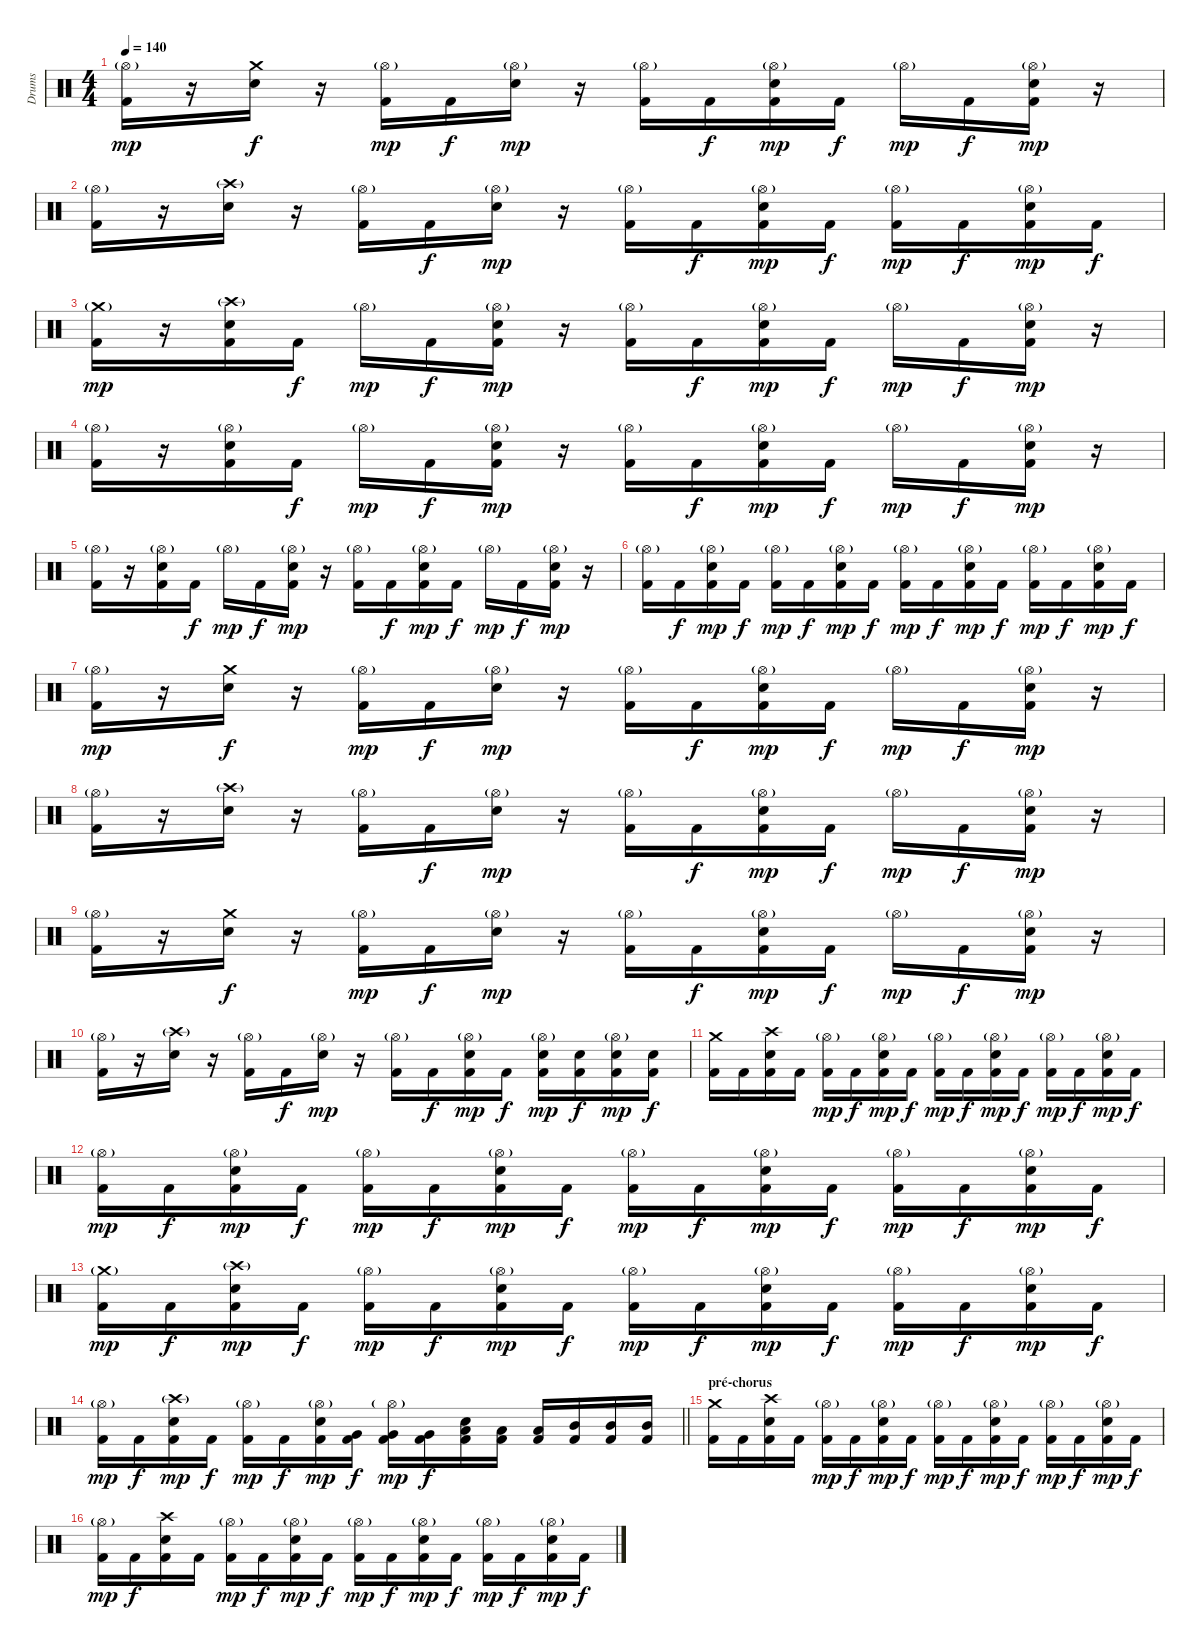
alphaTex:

\track ("Drums" "Drums") {instrument percussion}
\staff {score}
\articulation defaults
\ts (4 4)
\tempo 140
\clef neutral
\ks c
("Hi-Hat (open)"{g} "Kick (hit) 2").16{dy mp} r.16 ("Crash medium (hit)" "Electric Snare (hit)").16{dy f} r.16 ("Hi-Hat (open)"{g} "Kick (hit) 2").16{dy mp} "Kick (hit) 2".16{dy f} ("Hi-Hat (open)"{g} "Electric Snare (hit)").16{dy mp} r.16 ("Hi-Hat (open)"{g} "Kick (hit) 2").16 "Kick (hit) 2".16{dy f} ("Hi-Hat (open)"{g} "Electric Snare (hit)" "Kick (hit) 2").16{dy mp} "Kick (hit) 2".16{dy f} "Hi-Hat (open)"{g}.16{dy mp} "Kick (hit) 2".16{dy f} ("Hi-Hat (open)"{g} "Electric Snare (hit)" "Kick (hit) 2").16{dy mp} r.16 |
("Hi-Hat (open)"{g} "Kick (hit) 2").16 r.16 ("Crash high (hit)"{g} "Electric Snare (hit)").16 r.16 ("Hi-Hat (open)"{g} "Kick (hit) 2").16 "Kick (hit) 2".16{dy f} ("Hi-Hat (open)"{g} "Electric Snare (hit)").16{dy mp} r.16 ("Hi-Hat (open)"{g} "Kick (hit) 2").16 "Kick (hit) 2".16{dy f} ("Hi-Hat (open)"{g} "Electric Snare (hit)" "Kick (hit) 2").16{dy mp} "Kick (hit) 2".16{dy f} ("Hi-Hat (open)"{g} "Kick (hit) 2").16{dy mp} "Kick (hit) 2".16{dy f} ("Hi-Hat (open)"{g} "Electric Snare (hit)" "Kick (hit) 2").16{dy mp} "Kick (hit) 2".16{dy f} |
("Crash medium (hit)"{g} "Kick (hit) 2").16{dy mp} r.16 ("Crash high (hit)"{g} "Electric Snare (hit)" "Kick (hit) 2").16 "Kick (hit) 2".16{dy f} "Hi-Hat (open)"{g}.16{dy mp} "Kick (hit) 2".16{dy f} ("Hi-Hat (open)"{g} "Electric Snare (hit)" "Kick (hit) 2").16{dy mp} r.16 ("Hi-Hat (open)"{g} "Kick (hit) 2").16 "Kick (hit) 2".16{dy f} ("Hi-Hat (open)"{g} "Electric Snare (hit)" "Kick (hit) 2").16{dy mp} "Kick (hit) 2".16{dy f} "Hi-Hat (open)"{g}.16{dy mp} "Kick (hit) 2".16{dy f} ("Hi-Hat (open)"{g} "Electric Snare (hit)" "Kick (hit) 2").16{dy mp} r.16 |
("Hi-Hat (open)"{g} "Kick (hit) 2").16 r.16 ("Hi-Hat (open)"{g} "Electric Snare (hit)" "Kick (hit) 2").16 "Kick (hit) 2".16{dy f} "Hi-Hat (open)"{g}.16{dy mp} "Kick (hit) 2".16{dy f} ("Hi-Hat (open)"{g} "Electric Snare (hit)" "Kick (hit) 2").16{dy mp} r.16 ("Hi-Hat (open)"{g} "Kick (hit) 2").16 "Kick (hit) 2".16{dy f} ("Hi-Hat (open)"{g} "Electric Snare (hit)" "Kick (hit) 2").16{dy mp} "Kick (hit) 2".16{dy f} "Hi-Hat (open)"{g}.16{dy mp} "Kick (hit) 2".16{dy f} ("Hi-Hat (open)"{g} "Electric Snare (hit)" "Kick (hit) 2").16{dy mp} r.16 |
("Hi-Hat (open)"{g} "Kick (hit) 2").16 r.16 ("Hi-Hat (open)"{g} "Electric Snare (hit)" "Kick (hit) 2").16 "Kick (hit) 2".16{dy f} "Hi-Hat (open)"{g}.16{dy mp} "Kick (hit) 2".16{dy f} ("Hi-Hat (open)"{g} "Electric Snare (hit)" "Kick (hit) 2").16{dy mp} r.16 ("Hi-Hat (open)"{g} "Kick (hit) 2").16 "Kick (hit) 2".16{dy f} ("Hi-Hat (open)"{g} "Electric Snare (hit)" "Kick (hit) 2").16{dy mp} "Kick (hit) 2".16{dy f} "Hi-Hat (open)"{g}.16{dy mp} "Kick (hit) 2".16{dy f} ("Hi-Hat (open)"{g} "Electric Snare (hit)" "Kick (hit) 2").16{dy mp} r.16 |
("Hi-Hat (open)"{g} "Kick (hit) 2").16 "Kick (hit) 2".16{dy f} ("Hi-Hat (open)"{g} "Electric Snare (hit)" "Kick (hit) 2").16{dy mp} "Kick (hit) 2".16{dy f} ("Hi-Hat (open)"{g} "Kick (hit) 2").16{dy mp} "Kick (hit) 2".16{dy f} ("Hi-Hat (open)"{g} "Electric Snare (hit)" "Kick (hit) 2").16{dy mp} "Kick (hit) 2".16{dy f} ("Hi-Hat (open)"{g} "Kick (hit) 2").16{dy mp} "Kick (hit) 2".16{dy f} ("Hi-Hat (open)"{g} "Electric Snare (hit)" "Kick (hit) 2").16{dy mp} "Kick (hit) 2".16{dy f} ("Hi-Hat (open)"{g} "Kick (hit) 2").16{dy mp} "Kick (hit) 2".16{dy f} ("Hi-Hat (open)"{g} "Electric Snare (hit)" "Kick (hit) 2").16{dy mp} "Kick (hit) 2".16{dy f} |
("Hi-Hat (open)"{g} "Kick (hit) 2").16{dy mp} r.16 ("Crash medium (hit)" "Electric Snare (hit)").16{dy f} r.16 ("Hi-Hat (open)"{g} "Kick (hit) 2").16{dy mp} "Kick (hit) 2".16{dy f} ("Hi-Hat (open)"{g} "Electric Snare (hit)").16{dy mp} r.16 ("Hi-Hat (open)"{g} "Kick (hit) 2").16 "Kick (hit) 2".16{dy f} ("Hi-Hat (open)"{g} "Electric Snare (hit)" "Kick (hit) 2").16{dy mp} "Kick (hit) 2".16{dy f} "Hi-Hat (open)"{g}.16{dy mp} "Kick (hit) 2".16{dy f} ("Hi-Hat (open)"{g} "Electric Snare (hit)" "Kick (hit) 2").16{dy mp} r.16 |
("Hi-Hat (open)"{g} "Kick (hit) 2").16 r.16 ("Crash high (hit)"{g} "Electric Snare (hit)").16 r.16 ("Hi-Hat (open)"{g} "Kick (hit) 2").16 "Kick (hit) 2".16{dy f} ("Hi-Hat (open)"{g} "Electric Snare (hit)").16{dy mp} r.16 ("Hi-Hat (open)"{g} "Kick (hit) 2").16 "Kick (hit) 2".16{dy f} ("Hi-Hat (open)"{g} "Electric Snare (hit)" "Kick (hit) 2").16{dy mp} "Kick (hit) 2".16{dy f} "Hi-Hat (open)"{g}.16{dy mp} "Kick (hit) 2".16{dy f} ("Hi-Hat (open)"{g} "Electric Snare (hit)" "Kick (hit) 2").16{dy mp} r.16 |
("Hi-Hat (open)"{g} "Kick (hit) 2").16 r.16 ("Crash medium (hit)" "Electric Snare (hit)").16{dy f} r.16 ("Hi-Hat (open)"{g} "Kick (hit) 2").16{dy mp} "Kick (hit) 2".16{dy f} ("Hi-Hat (open)"{g} "Electric Snare (hit)").16{dy mp} r.16 ("Hi-Hat (open)"{g} "Kick (hit) 2").16 "Kick (hit) 2".16{dy f} ("Hi-Hat (open)"{g} "Electric Snare (hit)" "Kick (hit) 2").16{dy mp} "Kick (hit) 2".16{dy f} "Hi-Hat (open)"{g}.16{dy mp} "Kick (hit) 2".16{dy f} ("Hi-Hat (open)"{g} "Electric Snare (hit)" "Kick (hit) 2").16{dy mp} r.16 |
("Hi-Hat (open)"{g} "Kick (hit) 2").16 r.16 ("Crash high (hit)"{g} "Electric Snare (hit)").16 r.16 ("Hi-Hat (open)"{g} "Kick (hit) 2").16 "Kick (hit) 2".16{dy f} ("Hi-Hat (open)"{g} "Electric Snare (hit)").16{dy mp} r.16 ("Hi-Hat (open)"{g} "Kick (hit) 2").16 "Kick (hit) 2".16{dy f} ("Hi-Hat (open)"{g} "Electric Snare (hit)" "Kick (hit) 2").16{dy mp} "Kick (hit) 2".16{dy f} ("Hi-Hat (open)"{g} "Electric Snare (hit)" "Kick (hit) 2").16{dy mp} ("Electric Snare (hit)" "Kick (hit) 2").16{dy f} ("Hi-Hat (open)"{g} "Electric Snare (hit)" "Kick (hit) 2").16{dy mp} ("Electric Snare (hit)" "Kick (hit) 2").16{dy f} |
("Crash medium (hit)" "Kick (hit) 2").16 "Kick (hit) 2".16 ("Crash high (hit)" "Electric Snare (hit)" "Kick (hit) 2").16 "Kick (hit) 2".16 ("Hi-Hat (open)"{g} "Kick (hit) 2").16{dy mp} "Kick (hit) 2".16{dy f} ("Hi-Hat (open)"{g} "Electric Snare (hit)" "Kick (hit) 2").16{dy mp} "Kick (hit) 2".16{dy f} ("Hi-Hat (open)"{g} "Kick (hit) 2").16{dy mp} "Kick (hit) 2".16{dy f} ("Hi-Hat (open)"{g} "Electric Snare (hit)" "Kick (hit) 2").16{dy mp} "Kick (hit) 2".16{dy f} ("Hi-Hat (open)"{g} "Kick (hit) 2").16{dy mp} "Kick (hit) 2".16{dy f} ("Hi-Hat (open)"{g} "Electric Snare (hit)" "Kick (hit) 2").16{dy mp} "Kick (hit) 2".16{dy f} |
("Hi-Hat (open)"{g} "Kick (hit) 2").16{dy mp} "Kick (hit) 2".16{dy f} ("Hi-Hat (open)"{g} "Electric Snare (hit)" "Kick (hit) 2").16{dy mp} "Kick (hit) 2".16{dy f} ("Hi-Hat (open)"{g} "Kick (hit) 2").16{dy mp} "Kick (hit) 2".16{dy f} ("Hi-Hat (open)"{g} "Electric Snare (hit)" "Kick (hit) 2").16{dy mp} "Kick (hit) 2".16{dy f} ("Hi-Hat (open)"{g} "Kick (hit) 2").16{dy mp} "Kick (hit) 2".16{dy f} ("Hi-Hat (open)"{g} "Electric Snare (hit)" "Kick (hit) 2").16{dy mp} "Kick (hit) 2".16{dy f} ("Hi-Hat (open)"{g} "Kick (hit) 2").16{dy mp} "Kick (hit) 2".16{dy f} ("Hi-Hat (open)"{g} "Electric Snare (hit)" "Kick (hit) 2").16{dy mp} "Kick (hit) 2".16{dy f} |
("Crash medium (hit)"{g} "Kick (hit) 2").16{dy mp} "Kick (hit) 2".16{dy f} ("Crash high (hit)"{g} "Electric Snare (hit)" "Kick (hit) 2").16{dy mp} "Kick (hit) 2".16{dy f} ("Hi-Hat (open)"{g} "Kick (hit) 2").16{dy mp} "Kick (hit) 2".16{dy f} ("Hi-Hat (open)"{g} "Electric Snare (hit)" "Kick (hit) 2").16{dy mp} "Kick (hit) 2".16{dy f} ("Hi-Hat (open)"{g} "Kick (hit) 2").16{dy mp} "Kick (hit) 2".16{dy f} ("Hi-Hat (open)"{g} "Electric Snare (hit)" "Kick (hit) 2").16{dy mp} "Kick (hit) 2".16{dy f} ("Hi-Hat (open)"{g} "Kick (hit) 2").16{dy mp} "Kick (hit) 2".16{dy f} ("Hi-Hat (open)"{g} "Electric Snare (hit)" "Kick (hit) 2").16{dy mp} "Kick (hit) 2".16{dy f} |
\barLineRight lightlight
("Hi-Hat (open)"{g} "Kick (hit) 2").16{dy mp} "Kick (hit) 2".16{dy f} ("Crash high (hit)"{g} "Electric Snare (hit)" "Kick (hit) 2").16{dy mp} "Kick (hit) 2".16{dy f} ("Hi-Hat (open)"{g} "Kick (hit) 2").16{dy mp} "Kick (hit) 2".16{dy f} ("Hi-Hat (open)"{g} "Electric Snare (hit)" "Kick (hit) 2").16{dy mp} ("Kick (hit) 2" "Very Low Tom (hit)").16{dy f} ("Hi-Hat (open)"{g} "Kick (hit) 2" "Very Low Tom (hit)").16{dy mp} ("Kick (hit) 2" "Very Low Tom (hit)").16{dy f} ("Electric Snare (hit)" "Kick (hit) 2" "Low Tom (hit)").16 ("Kick (hit) 2" "Low Tom (hit)").16 ("Kick (hit) 2" "Low Tom (hit)").16 ("Kick (hit) 2" "Mid Tom (hit)").16 ("Kick (hit) 2" "Mid Tom (hit)").16 ("Kick (hit) 2" "Mid Tom (hit)").16 |
\section ("" "pré-chorus")
("Crash medium (hit)" "Kick (hit) 2").16 "Kick (hit) 2".16 ("Crash high (hit)" "Electric Snare (hit)" "Kick (hit) 2").16 "Kick (hit) 2".16 ("Hi-Hat (open)"{g} "Kick (hit) 2").16{dy mp} "Kick (hit) 2".16{dy f} ("Hi-Hat (open)"{g} "Electric Snare (hit)" "Kick (hit) 2").16{dy mp} "Kick (hit) 2".16{dy f} ("Hi-Hat (open)"{g} "Kick (hit) 2").16{dy mp} "Kick (hit) 2".16{dy f} ("Hi-Hat (open)"{g} "Electric Snare (hit)" "Kick (hit) 2").16{dy mp} "Kick (hit) 2".16{dy f} ("Hi-Hat (open)"{g} "Kick (hit) 2").16{dy mp} "Kick (hit) 2".16{dy f} ("Hi-Hat (open)"{g} "Electric Snare (hit)" "Kick (hit) 2").16{dy mp} "Kick (hit) 2".16{dy f} |
("Hi-Hat (open)"{g} "Kick (hit) 2").16{dy mp} "Kick (hit) 2".16{dy f} ("Crash high (hit)" "Electric Snare (hit)" "Kick (hit) 2").16 "Kick (hit) 2".16 ("Hi-Hat (open)"{g} "Kick (hit) 2").16{dy mp} "Kick (hit) 2".16{dy f} ("Hi-Hat (open)"{g} "Electric Snare (hit)" "Kick (hit) 2").16{dy mp} "Kick (hit) 2".16{dy f} ("Hi-Hat (open)"{g} "Kick (hit) 2").16{dy mp} "Kick (hit) 2".16{dy f} ("Hi-Hat (open)"{g} "Electric Snare (hit)" "Kick (hit) 2").16{dy mp} "Kick (hit) 2".16{dy f} ("Hi-Hat (open)"{g} "Kick (hit) 2").16{dy mp} "Kick (hit) 2".16{dy f} ("Hi-Hat (open)"{g} "Electric Snare (hit)" "Kick (hit) 2").16{dy mp} "Kick (hit) 2".16{dy f}
